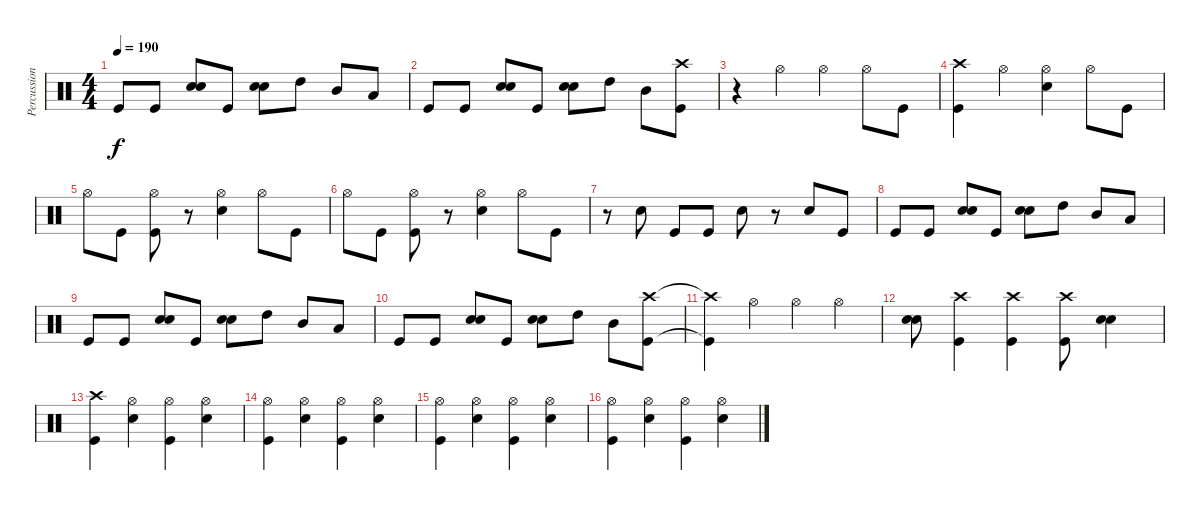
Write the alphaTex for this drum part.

\track ("Percussion" "Percussion") {mute instrument percussion}
\staff {score}
\articulation defaults
\ts (4 4)
\tempo 190
\clef neutral
\ks c "Kick (hit)".8{dy f} "Kick (hit)".8
("Snare (hit) 2" "Snare (hit) 2").8 "Kick (hit)".8 ("Snare (hit) 2" "Snare (hit) 2").8 "High Tom (hit)".8 "Mid Tom (hit)".8 "Low Tom (hit)".8 |
"Kick (hit)".8 "Kick (hit)".8 ("Snare (hit) 2" "Snare (hit) 2").8 "Kick (hit)".8 ("Snare (hit) 2" "Snare (hit) 2").8 "High Tom (hit)".8 "Mid Tom (hit)".8 ("Crash high (hit)" "Kick (hit)").8 |
r.4 "Hi-Hat (open)".4 "Hi-Hat (open)".4 "Hi-Hat (open)".8 "Kick (hit)".8 |
("Crash high (hit)" "Kick (hit)").4 "Hi-Hat (open)".4 ("Hi-Hat (open)" "Snare (hit) 2").4 "Hi-Hat (open)".8 "Kick (hit)".8 |
"Hi-Hat (open)".8 "Kick (hit)".8 ("Hi-Hat (open)" "Kick (hit)").8 r.8 ("Hi-Hat (open)" "Snare (hit) 2").4 "Hi-Hat (open)".8 "Kick (hit)".8 |
"Hi-Hat (open)".8 "Kick (hit)".8 ("Hi-Hat (open)" "Kick (hit)").8 r.8 ("Hi-Hat (open)" "Snare (hit) 2").4 "Hi-Hat (open)".8 "Kick (hit)".8 |
r.8 "Snare (hit) 2".8 "Kick (hit)".8 "Kick (hit)".8 "Snare (hit) 2".8 r.8 "Snare (hit) 2".8 "Kick (hit)".8 |
"Kick (hit)".8 "Kick (hit)".8 ("Snare (hit) 2" "Snare (hit) 2").8 "Kick (hit)".8 ("Snare (hit) 2" "Snare (hit) 2").8 "High Tom (hit)".8 "Mid Tom (hit)".8 "Low Tom (hit)".8 |
"Kick (hit)".8 "Kick (hit)".8 ("Snare (hit) 2" "Snare (hit) 2").8 "Kick (hit)".8 ("Snare (hit) 2" "Snare (hit) 2").8 "High Tom (hit)".8 "Mid Tom (hit)".8 "Low Tom (hit)".8 |
"Kick (hit)".8 "Kick (hit)".8 ("Snare (hit) 2" "Snare (hit) 2").8 "Kick (hit)".8 ("Snare (hit) 2" "Snare (hit) 2").8 "High Tom (hit)".8 "Mid Tom (hit)".8 ("Crash high (hit)" "Kick (hit)").8 |
("Crash high (hit)"{t} "Kick (hit)"{t}).4 "Hi-Hat (open)".4 "Hi-Hat (open)".4 "Hi-Hat (open)".4 |
("Snare (hit) 2" "Snare (hit) 2").8 ("Crash high (hit)" "Kick (hit)").4 ("Crash high (hit)" "Kick (hit)").4 ("Crash high (hit)" "Kick (hit)").8 ("Snare (hit) 2" "Snare (hit) 2").4 |
("Crash high (hit)" "Kick (hit)").4 ("Hi-Hat (open)" "Snare (hit) 2").4 ("Hi-Hat (open)" "Kick (hit)").4 ("Hi-Hat (open)" "Snare (hit) 2").4 |
("Hi-Hat (open)" "Kick (hit)").4 ("Hi-Hat (open)" "Snare (hit) 2").4 ("Hi-Hat (open)" "Kick (hit)").4 ("Hi-Hat (open)" "Snare (hit) 2").4 |
("Hi-Hat (open)" "Kick (hit)").4 ("Hi-Hat (open)" "Snare (hit) 2").4 ("Hi-Hat (open)" "Kick (hit)").4 ("Hi-Hat (open)" "Snare (hit) 2").4 |
("Hi-Hat (open)" "Kick (hit)").4 ("Hi-Hat (open)" "Snare (hit) 2").4 ("Hi-Hat (open)" "Kick (hit)").4 ("Hi-Hat (open)" "Snare (hit) 2").4
